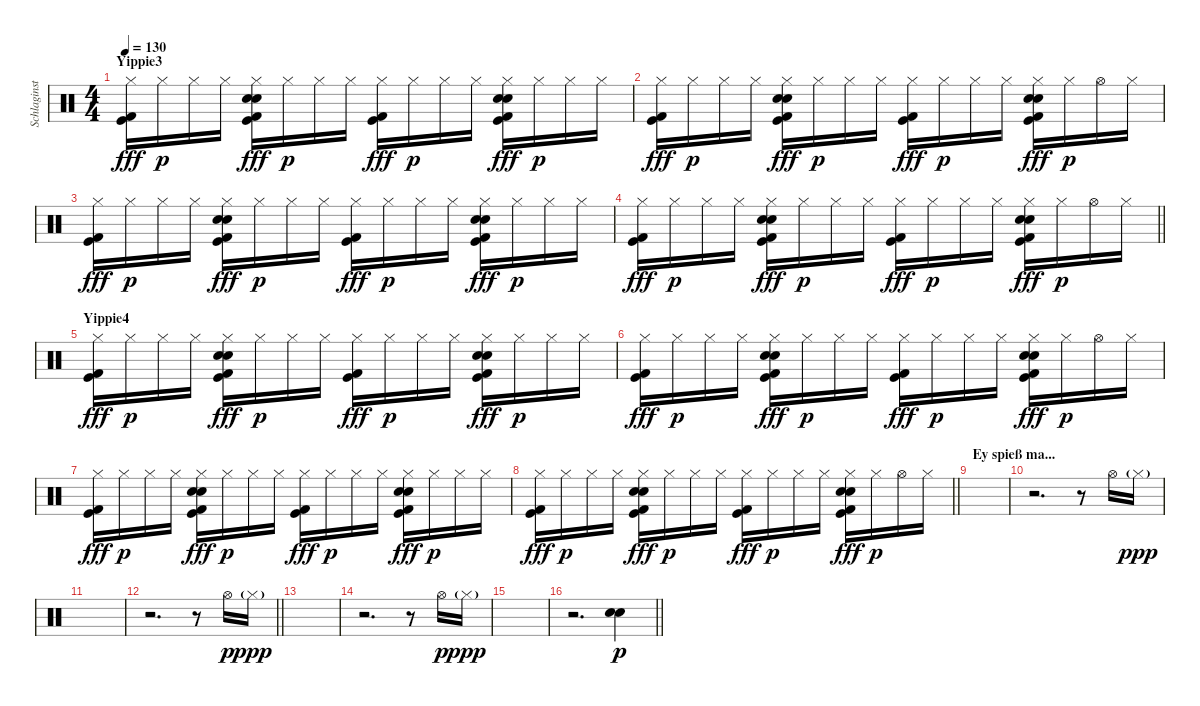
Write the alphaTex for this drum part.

\track ("Schlaginstrumente - Auswahl" "Schlaginst") {instrument percussion}
\staff {score}
\articulation defaults
\ts (4 4)
\section ("" "Yippie3")
\tempo 130
\clef neutral
\ks c
("Hi-Hat (closed)" "Kick (hit) 2" "Kick (hit)").16{dy fff} "Hi-Hat (closed)".16{dy p} "Hi-Hat (closed)".16 "Hi-Hat (closed)".16 ("Hand Clap (hit)" "Hi-Hat (closed)" "Snare (hit) 2" "Kick (hit) 2" "Kick (hit)").16{dy fff} "Hi-Hat (closed)".16{dy p} "Hi-Hat (closed)".16 "Hi-Hat (closed)".16 ("Hi-Hat (closed)" "Kick (hit) 2" "Kick (hit)").16{dy fff} "Hi-Hat (closed)".16{dy p} "Hi-Hat (closed)".16 "Hi-Hat (closed)".16 ("Hand Clap (hit)" "Hi-Hat (closed)" "Snare (hit) 2" "Kick (hit) 2" "Kick (hit)").16{dy fff} "Hi-Hat (closed)".16{dy p} "Hi-Hat (closed)".16 "Hi-Hat (closed)".16 |
("Hi-Hat (closed)" "Kick (hit) 2" "Kick (hit)").16{dy fff} "Hi-Hat (closed)".16{dy p} "Hi-Hat (closed)".16 "Hi-Hat (closed)".16 ("Hand Clap (hit)" "Hi-Hat (closed)" "Snare (hit) 2" "Kick (hit) 2" "Kick (hit)").16{dy fff} "Hi-Hat (closed)".16{dy p} "Hi-Hat (closed)".16 "Hi-Hat (closed)".16 ("Hi-Hat (closed)" "Kick (hit) 2" "Kick (hit)").16{dy fff} "Hi-Hat (closed)".16{dy p} "Hi-Hat (closed)".16 "Hi-Hat (closed)".16 ("Hand Clap (hit)" "Hi-Hat (closed)" "Snare (hit) 2" "Kick (hit) 2" "Kick (hit)").16{dy fff} "Hi-Hat (closed)".16{dy p} "Hi-Hat (open)".16 "Hi-Hat (closed)".16 |
("Hi-Hat (closed)" "Kick (hit) 2" "Kick (hit)").16{dy fff} "Hi-Hat (closed)".16{dy p} "Hi-Hat (closed)".16 "Hi-Hat (closed)".16 ("Hand Clap (hit)" "Hi-Hat (closed)" "Snare (hit) 2" "Kick (hit) 2" "Kick (hit)").16{dy fff} "Hi-Hat (closed)".16{dy p} "Hi-Hat (closed)".16 "Hi-Hat (closed)".16 ("Hi-Hat (closed)" "Kick (hit) 2" "Kick (hit)").16{dy fff} "Hi-Hat (closed)".16{dy p} "Hi-Hat (closed)".16 "Hi-Hat (closed)".16 ("Hand Clap (hit)" "Hi-Hat (closed)" "Snare (hit) 2" "Kick (hit) 2" "Kick (hit)").16{dy fff} "Hi-Hat (closed)".16{dy p} "Hi-Hat (closed)".16 "Hi-Hat (closed)".16 |
\barLineRight lightlight
("Hi-Hat (closed)" "Kick (hit) 2" "Kick (hit)").16{dy fff} "Hi-Hat (closed)".16{dy p} "Hi-Hat (closed)".16 "Hi-Hat (closed)".16 ("Hand Clap (hit)" "Hi-Hat (closed)" "Snare (hit) 2" "Kick (hit) 2" "Kick (hit)").16{dy fff} "Hi-Hat (closed)".16{dy p} "Hi-Hat (closed)".16 "Hi-Hat (closed)".16 ("Hi-Hat (closed)" "Kick (hit) 2" "Kick (hit)").16{dy fff} "Hi-Hat (closed)".16{dy p} "Hi-Hat (closed)".16 "Hi-Hat (closed)".16 ("Hand Clap (hit)" "Hi-Hat (closed)" "Snare (hit) 2" "Kick (hit) 2" "Kick (hit)").16{dy fff} "Hi-Hat (closed)".16{dy p} "Hi-Hat (open)".16 "Hi-Hat (closed)".16 |
\section ("" "Yippie4")
("Hi-Hat (closed)" "Kick (hit) 2" "Kick (hit)").16{dy fff} "Hi-Hat (closed)".16{dy p} "Hi-Hat (closed)".16 "Hi-Hat (closed)".16 ("Hand Clap (hit)" "Hi-Hat (closed)" "Snare (hit) 2" "Kick (hit) 2" "Kick (hit)").16{dy fff} "Hi-Hat (closed)".16{dy p} "Hi-Hat (closed)".16 "Hi-Hat (closed)".16 ("Hi-Hat (closed)" "Kick (hit) 2" "Kick (hit)").16{dy fff} "Hi-Hat (closed)".16{dy p} "Hi-Hat (closed)".16 "Hi-Hat (closed)".16 ("Hand Clap (hit)" "Hi-Hat (closed)" "Snare (hit) 2" "Kick (hit) 2" "Kick (hit)").16{dy fff} "Hi-Hat (closed)".16{dy p} "Hi-Hat (closed)".16 "Hi-Hat (closed)".16 |
("Hi-Hat (closed)" "Kick (hit) 2" "Kick (hit)").16{dy fff} "Hi-Hat (closed)".16{dy p} "Hi-Hat (closed)".16 "Hi-Hat (closed)".16 ("Hand Clap (hit)" "Hi-Hat (closed)" "Snare (hit) 2" "Kick (hit) 2" "Kick (hit)").16{dy fff} "Hi-Hat (closed)".16{dy p} "Hi-Hat (closed)".16 "Hi-Hat (closed)".16 ("Hi-Hat (closed)" "Kick (hit) 2" "Kick (hit)").16{dy fff} "Hi-Hat (closed)".16{dy p} "Hi-Hat (closed)".16 "Hi-Hat (closed)".16 ("Hand Clap (hit)" "Hi-Hat (closed)" "Snare (hit) 2" "Kick (hit) 2" "Kick (hit)").16{dy fff} "Hi-Hat (closed)".16{dy p} "Hi-Hat (open)".16 "Hi-Hat (closed)".16 |
("Hi-Hat (closed)" "Kick (hit) 2" "Kick (hit)").16{dy fff} "Hi-Hat (closed)".16{dy p} "Hi-Hat (closed)".16 "Hi-Hat (closed)".16 ("Hand Clap (hit)" "Hi-Hat (closed)" "Snare (hit) 2" "Kick (hit) 2" "Kick (hit)").16{dy fff} "Hi-Hat (closed)".16{dy p} "Hi-Hat (closed)".16 "Hi-Hat (closed)".16 ("Hi-Hat (closed)" "Kick (hit) 2" "Kick (hit)").16{dy fff} "Hi-Hat (closed)".16{dy p} "Hi-Hat (closed)".16 "Hi-Hat (closed)".16 ("Hand Clap (hit)" "Hi-Hat (closed)" "Snare (hit) 2" "Kick (hit) 2" "Kick (hit)").16{dy fff} "Hi-Hat (closed)".16{dy p} "Hi-Hat (closed)".16 "Hi-Hat (closed)".16 |
\barLineRight lightlight
("Hi-Hat (closed)" "Kick (hit) 2" "Kick (hit)").16{dy fff} "Hi-Hat (closed)".16{dy p} "Hi-Hat (closed)".16 "Hi-Hat (closed)".16 ("Hand Clap (hit)" "Hi-Hat (closed)" "Snare (hit) 2" "Kick (hit) 2" "Kick (hit)").16{dy fff} "Hi-Hat (closed)".16{dy p} "Hi-Hat (closed)".16 "Hi-Hat (closed)".16 ("Hi-Hat (closed)" "Kick (hit) 2" "Kick (hit)").16{dy fff} "Hi-Hat (closed)".16{dy p} "Hi-Hat (closed)".16 "Hi-Hat (closed)".16 ("Hand Clap (hit)" "Hi-Hat (closed)" "Snare (hit) 2" "Kick (hit) 2" "Kick (hit)").16{dy fff} "Hi-Hat (closed)".16{dy p} "Hi-Hat (open)".16 "Hi-Hat (closed)".16 |
\section ("" "Ey spieß ma...")
|
r.2{d} r.8 "Hi-Hat (open)".16 "Hi-Hat (closed)"{g}.16{dy ppp} |
|
\barLineRight lightlight
r.2{d} r.8 "Hi-Hat (open)".16{dy p} "Hi-Hat (closed)"{g}.16{dy ppp} |
|
r.2{d} r.8 "Hi-Hat (open)".16{dy p} "Hi-Hat (closed)"{g}.16{dy ppp} |
|
\barLineRight lightlight
r.2{d} ("Hand Clap (hit)" "Snare (hit) 2").4{dy p}
